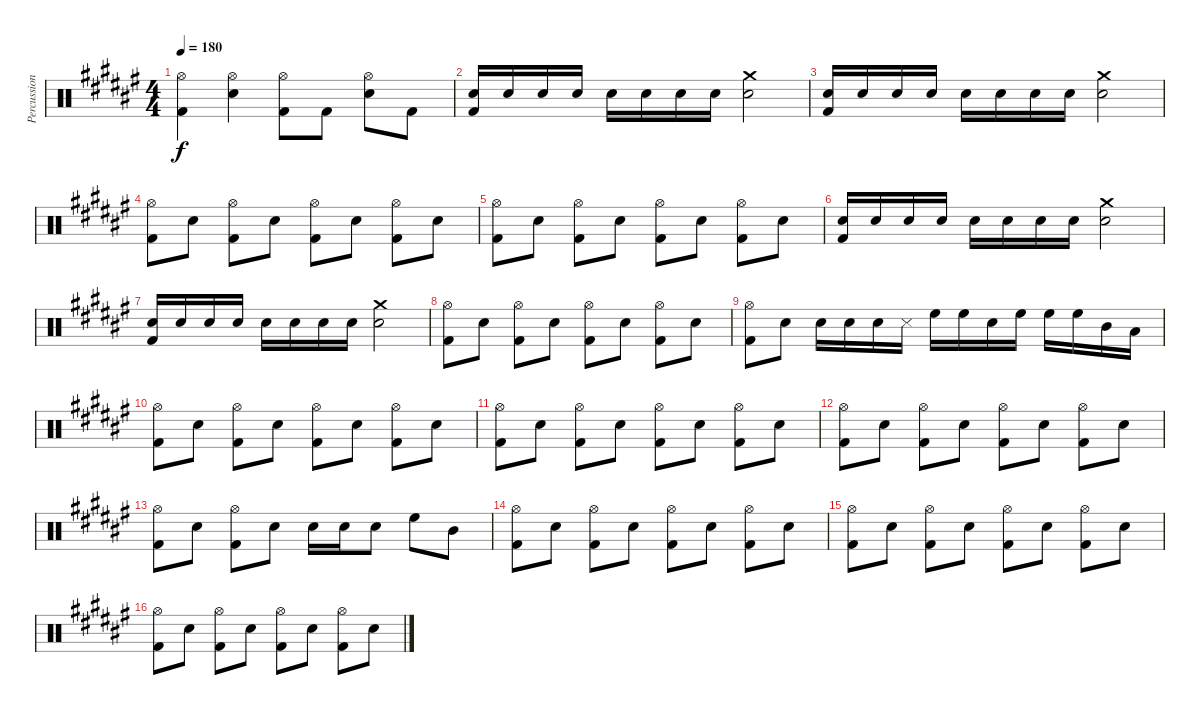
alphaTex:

\track ("Percussion" "Percussion") {instrument percussion}
\staff {score}
\articulation defaults
\ts (4 4)
\tempo 180
\clef neutral
\ks f#
("Hi-Hat (open)" "Kick (hit) 2").4{dy f} ("Hi-Hat (open)" "Snare (hit) 2").4 ("Hi-Hat (open)" "Kick (hit) 2").8 "Kick (hit) 2".8 ("Hi-Hat (open)" "Snare (hit) 2").8 "Kick (hit) 2".8 |
("Snare (hit) 2" "Kick (hit) 2").16 "Snare (hit) 2".16 "Snare (hit) 2".16 "Snare (hit) 2".16 "Snare (hit) 2".16 "Snare (hit) 2".16 "Snare (hit) 2".16 "Snare (hit) 2".16 ("Crash medium (hit)" "Snare (hit) 2").2 |
("Snare (hit) 2" "Kick (hit) 2").16 "Snare (hit) 2".16 "Snare (hit) 2".16 "Snare (hit) 2".16 "Snare (hit) 2".16 "Snare (hit) 2".16 "Snare (hit) 2".16 "Snare (hit) 2".16 ("Crash medium (hit)" "Snare (hit) 2").2 |
("Hi-Hat (open)" "Kick (hit) 2").8 "Snare (hit) 2".8 ("Hi-Hat (open)" "Kick (hit) 2").8 "Snare (hit) 2".8 ("Hi-Hat (open)" "Kick (hit) 2").8 "Snare (hit) 2".8 ("Hi-Hat (open)" "Kick (hit) 2").8 "Snare (hit) 2".8 |
("Hi-Hat (open)" "Kick (hit) 2").8 "Snare (hit) 2".8 ("Hi-Hat (open)" "Kick (hit) 2").8 "Snare (hit) 2".8 ("Hi-Hat (open)" "Kick (hit) 2").8 "Snare (hit) 2".8 ("Hi-Hat (open)" "Kick (hit) 2").8 "Snare (hit) 2".8 |
("Snare (hit) 2" "Kick (hit) 2").16 "Snare (hit) 2".16 "Snare (hit) 2".16 "Snare (hit) 2".16 "Snare (hit) 2".16 "Snare (hit) 2".16 "Snare (hit) 2".16 "Snare (hit) 2".16 ("Crash medium (hit)" "Snare (hit) 2").2 |
("Snare (hit) 2" "Kick (hit) 2").16 "Snare (hit) 2".16 "Snare (hit) 2".16 "Snare (hit) 2".16 "Snare (hit) 2".16 "Snare (hit) 2".16 "Snare (hit) 2".16 "Snare (hit) 2".16 ("Crash medium (hit)" "Snare (hit) 2").2 |
("Hi-Hat (open)" "Kick (hit) 2").8 "Snare (hit) 2".8 ("Hi-Hat (open)" "Kick (hit) 2").8 "Snare (hit) 2".8 ("Hi-Hat (open)" "Kick (hit) 2").8 "Snare (hit) 2".8 ("Hi-Hat (open)" "Kick (hit) 2").8 "Snare (hit) 2".8 |
("Hi-Hat (open)" "Kick (hit) 2").8 "Snare (hit) 2".8 "Snare (hit) 2".16 "Snare (hit) 2".16 "Snare (hit) 2".16 "Snare (side stick) 3".16 "High Floor Tom (hit)".16 "High Floor Tom (hit)".16 "Snare (hit) 2".16 "High Floor Tom (hit)".16 "High Floor Tom (hit)".16 "High Floor Tom (hit)".16 "Mid Tom (hit)".16 "Low Floor Tom (hit)".16 |
("Hi-Hat (open)" "Kick (hit) 2").8 "Snare (hit) 2".8 ("Hi-Hat (open)" "Kick (hit) 2").8 "Snare (hit) 2".8 ("Hi-Hat (open)" "Kick (hit) 2").8 "Snare (hit) 2".8 ("Hi-Hat (open)" "Kick (hit) 2").8 "Snare (hit) 2".8 |
("Hi-Hat (open)" "Kick (hit) 2").8 "Snare (hit) 2".8 ("Hi-Hat (open)" "Kick (hit) 2").8 "Snare (hit) 2".8 ("Hi-Hat (open)" "Kick (hit) 2").8 "Snare (hit) 2".8 ("Hi-Hat (open)" "Kick (hit) 2").8 "Snare (hit) 2".8 |
("Hi-Hat (open)" "Kick (hit) 2").8 "Snare (hit) 2".8 ("Hi-Hat (open)" "Kick (hit) 2").8 "Snare (hit) 2".8 ("Hi-Hat (open)" "Kick (hit) 2").8 "Snare (hit) 2".8 ("Hi-Hat (open)" "Kick (hit) 2").8 "Snare (hit) 2".8 |
("Hi-Hat (open)" "Kick (hit) 2").8 "Snare (hit) 2".8 ("Hi-Hat (open)" "Kick (hit) 2").8 "Snare (hit) 2".8 "Snare (hit) 2".16 "Snare (hit) 2".16 "Snare (hit) 2".8 "High Floor Tom (hit)".8 "Mid Tom (hit)".8 |
("Hi-Hat (open)" "Kick (hit) 2").8 "Snare (hit) 2".8 ("Hi-Hat (open)" "Kick (hit) 2").8 "Snare (hit) 2".8 ("Hi-Hat (open)" "Kick (hit) 2").8 "Snare (hit) 2".8 ("Hi-Hat (open)" "Kick (hit) 2").8 "Snare (hit) 2".8 |
("Hi-Hat (open)" "Kick (hit) 2").8 "Snare (hit) 2".8 ("Hi-Hat (open)" "Kick (hit) 2").8 "Snare (hit) 2".8 ("Hi-Hat (open)" "Kick (hit) 2").8 "Snare (hit) 2".8 ("Hi-Hat (open)" "Kick (hit) 2").8 "Snare (hit) 2".8 |
("Hi-Hat (open)" "Kick (hit) 2").8 "Snare (hit) 2".8 ("Hi-Hat (open)" "Kick (hit) 2").8 "Snare (hit) 2".8 ("Hi-Hat (open)" "Kick (hit) 2").8 "Snare (hit) 2".8 ("Hi-Hat (open)" "Kick (hit) 2").8 "Snare (hit) 2".8
